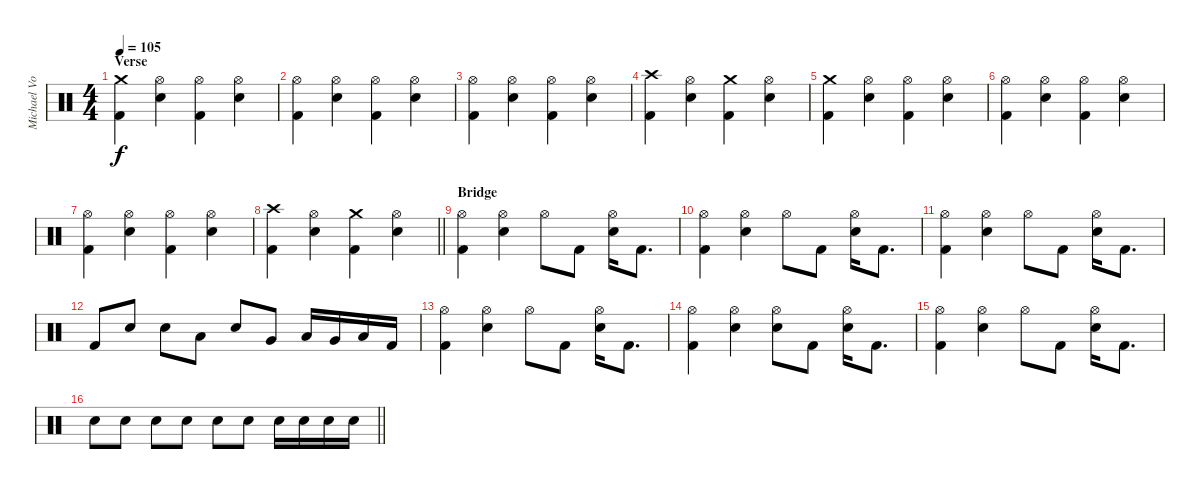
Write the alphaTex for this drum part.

\track ("Michael Von Knorring" "Michael Vo") {instrument percussion}
\staff {score}
\articulation defaults
\ts (4 4)
\section ("" "Verse")
\tempo 105
\clef neutral
\ks c
("Crash medium (hit)" "Kick (hit) 2").4{dy f} ("Hi-Hat (open)" "Snare (hit) 2").4 ("Hi-Hat (open)" "Kick (hit) 2").4 ("Hi-Hat (open)" "Snare (hit) 2").4 |
("Hi-Hat (open)" "Kick (hit) 2").4 ("Hi-Hat (open)" "Snare (hit) 2").4 ("Hi-Hat (open)" "Kick (hit) 2").4 ("Hi-Hat (open)" "Snare (hit) 2").4 |
("Hi-Hat (open)" "Kick (hit) 2").4 ("Hi-Hat (open)" "Snare (hit) 2").4 ("Hi-Hat (open)" "Kick (hit) 2").4 ("Hi-Hat (open)" "Snare (hit) 2").4 |
("Crash high (hit)" "Kick (hit) 2").4 ("Hi-Hat (open)" "Snare (hit) 2").4 ("Crash medium (hit)" "Kick (hit) 2").4 ("Hi-Hat (open)" "Snare (hit) 2").4 |
("Crash medium (hit)" "Kick (hit) 2").4 ("Hi-Hat (open)" "Snare (hit) 2").4 ("Hi-Hat (open)" "Kick (hit) 2").4 ("Hi-Hat (open)" "Snare (hit) 2").4 |
("Hi-Hat (open)" "Kick (hit) 2").4 ("Hi-Hat (open)" "Snare (hit) 2").4 ("Hi-Hat (open)" "Kick (hit) 2").4 ("Hi-Hat (open)" "Snare (hit) 2").4 |
("Hi-Hat (open)" "Kick (hit) 2").4 ("Hi-Hat (open)" "Snare (hit) 2").4 ("Hi-Hat (open)" "Kick (hit) 2").4 ("Hi-Hat (open)" "Snare (hit) 2").4 |
\barLineRight lightlight
("Crash high (hit)" "Kick (hit) 2").4 ("Hi-Hat (open)" "Snare (hit) 2").4 ("Crash medium (hit)" "Kick (hit) 2").4 ("Hi-Hat (open)" "Snare (hit) 2").4 |
\section ("" "Bridge")
("Hi-Hat (open)" "Kick (hit) 2").4 ("Hi-Hat (open)" "Snare (hit) 2").4 "Hi-Hat (open)".8 "Kick (hit) 2".8 ("Hi-Hat (open)" "Snare (hit) 2").16 "Kick (hit) 2".8{d} |
("Hi-Hat (open)" "Kick (hit) 2").4 ("Hi-Hat (open)" "Snare (hit) 2").4 "Hi-Hat (open)".8 "Kick (hit) 2".8 ("Hi-Hat (open)" "Snare (hit) 2").16 "Kick (hit) 2".8{d} |
("Hi-Hat (open)" "Kick (hit) 2").4 ("Hi-Hat (open)" "Snare (hit) 2").4 "Hi-Hat (open)".8 "Kick (hit) 2".8 ("Hi-Hat (open)" "Snare (hit) 2").16 "Kick (hit) 2".8{d} |
"Kick (hit) 2".8 "Snare (hit) 2".8 "Snare (hit) 2".8 "Low Tom (hit)".8 "Snare (hit) 2".8 "Very Low Tom (hit)".8 "Low Tom (hit)".16 "Very Low Tom (hit)".16 "Low Floor Tom (hit)".16 "Kick (hit) 2".16 |
("Hi-Hat (open)" "Kick (hit) 2").4 ("Hi-Hat (open)" "Snare (hit) 2").4 "Hi-Hat (open)".8 "Kick (hit) 2".8 ("Hi-Hat (open)" "Snare (hit) 2").16 "Kick (hit) 2".8{d} |
("Hi-Hat (open)" "Kick (hit) 2").4 ("Hi-Hat (open)" "Snare (hit) 2").4 ("Hi-Hat (open)" "Snare (hit) 2").8 "Kick (hit) 2".8 ("Hi-Hat (open)" "Snare (hit) 2").16 "Kick (hit) 2".8{d} |
("Hi-Hat (open)" "Kick (hit) 2").4 ("Hi-Hat (open)" "Snare (hit) 2").4 "Hi-Hat (open)".8 "Kick (hit) 2".8 ("Hi-Hat (open)" "Snare (hit) 2").16 "Kick (hit) 2".8{d} |
\barLineRight lightlight "Snare (hit) 2".8 "Snare (hit) 2".8 "Snare (hit) 2".8 "Snare (hit) 2".8 "Snare (hit) 2".8 "Snare (hit) 2".8 "Snare (hit) 2".16 "Snare (hit) 2".16 "Snare (hit) 2".16 "Snare (hit) 2".16
